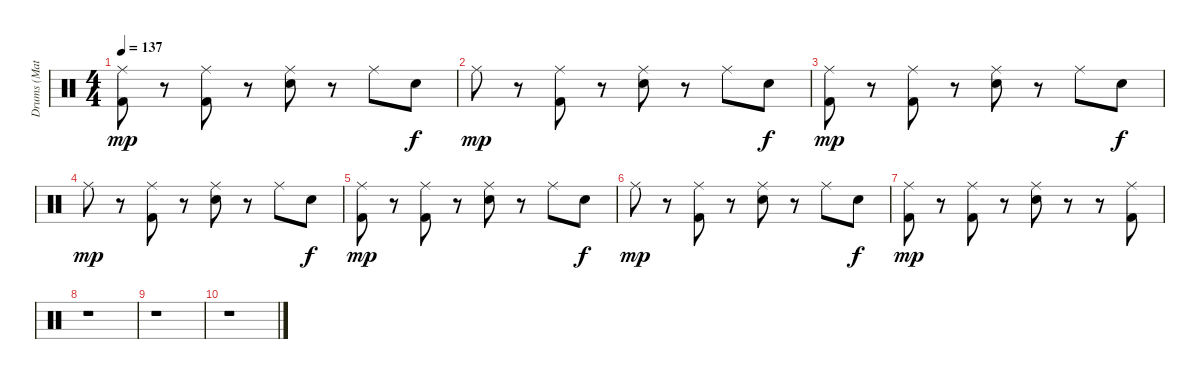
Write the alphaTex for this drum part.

\track ("Drums (Matthias)" "Drums (Mat") {instrument percussion}
\staff {score}
\articulation defaults
\ts (4 4)
\tempo 137
\clef neutral
\ks c
("Ride (middle)" "Kick (hit) 2").8{dy mp} r.8 ("Ride (middle)" "Kick (hit) 2").8 r.8 ("Ride (middle)" "Electric Snare (hit)").8 r.8 "Ride (middle)".8 "Electric Snare (hit)".8{dy f} |
"Ride (middle)".8{dy mp} r.8 ("Ride (middle)" "Kick (hit) 2").8 r.8 ("Ride (middle)" "Electric Snare (hit)").8 r.8 "Ride (middle)".8 "Electric Snare (hit)".8{dy f} |
("Ride (middle)" "Kick (hit) 2").8{dy mp} r.8 ("Ride (middle)" "Kick (hit) 2").8 r.8 ("Ride (middle)" "Electric Snare (hit)").8 r.8 "Ride (middle)".8 "Electric Snare (hit)".8{dy f} |
"Ride (middle)".8{dy mp} r.8 ("Ride (middle)" "Kick (hit) 2").8 r.8 ("Ride (middle)" "Electric Snare (hit)").8 r.8 "Ride (middle)".8 "Electric Snare (hit)".8{dy f} |
("Ride (middle)" "Kick (hit) 2").8{dy mp} r.8 ("Ride (middle)" "Kick (hit) 2").8 r.8 ("Ride (middle)" "Electric Snare (hit)").8 r.8 "Ride (middle)".8 "Electric Snare (hit)".8{dy f} |
"Ride (middle)".8{dy mp} r.8 ("Ride (middle)" "Kick (hit) 2").8 r.8 ("Ride (middle)" "Electric Snare (hit)").8 r.8 "Ride (middle)".8 "Electric Snare (hit)".8{dy f} |
("Ride (middle)" "Kick (hit) 2").8{dy mp} r.8 ("Ride (middle)" "Kick (hit) 2").8 r.8 ("Ride (middle)" "Electric Snare (hit)").8 r.8 r.8 ("Ride (middle)" "Kick (hit) 2").8 |
r.1 |
r.1 |
r.1
